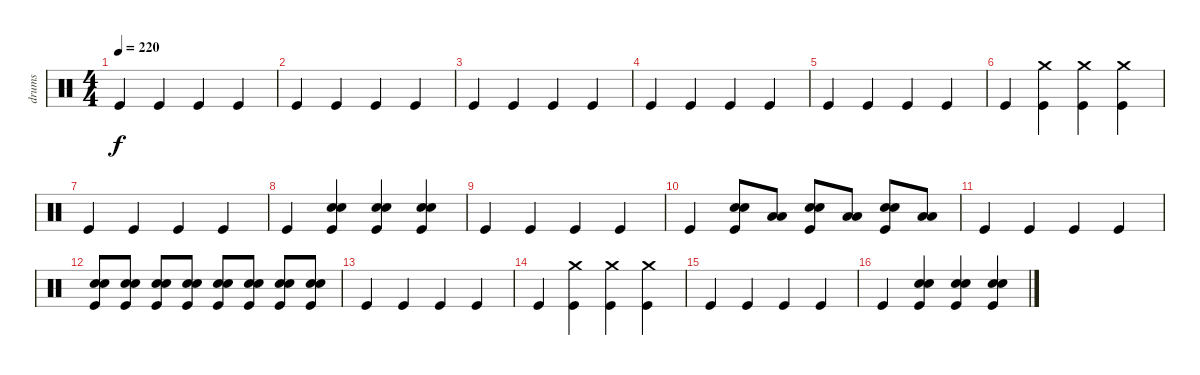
\track ("drums" "drums") {instrument percussion}
\staff {score}
\articulation defaults
\ts (4 4)
\tempo 220
\clef neutral
\ks c "Kick (hit)".4{dy f} "Kick (hit)".4 "Kick (hit)".4 "Kick (hit)".4
|
"Kick (hit)".4 "Kick (hit)".4 "Kick (hit)".4 "Kick (hit)".4 |
"Kick (hit)".4 "Kick (hit)".4 "Kick (hit)".4 "Kick (hit)".4 |
"Kick (hit)".4 "Kick (hit)".4 "Kick (hit)".4 "Kick (hit)".4 |
"Kick (hit)".4 "Kick (hit)".4 "Kick (hit)".4 "Kick (hit)".4 |
"Kick (hit)".4 ("Kick (hit)" "Crash medium (hit)").4 ("Kick (hit)" "Crash medium (hit)").4 ("Kick (hit)" "Crash medium (hit)").4 |
"Kick (hit)".4 "Kick (hit)".4 "Kick (hit)".4 "Kick (hit)".4 |
"Kick (hit)".4 ("Kick (hit)" "Electric Snare (hit)" "Snare (hit) 2").4 ("Kick (hit)" "Electric Snare (hit)" "Snare (hit) 2").4 ("Kick (hit)" "Electric Snare (hit)" "Snare (hit) 2").4 |
"Kick (hit)".4 "Kick (hit)".4 "Kick (hit)".4 "Kick (hit)".4 |
"Kick (hit)".4 ("Kick (hit)" "Electric Snare (hit)" "Snare (hit) 2").8 ("Low Tom (hit)" "Low Tom (hit)").8 ("Kick (hit)" "Electric Snare (hit)" "Snare (hit) 2").8 ("Low Tom (hit)" "Low Tom (hit)").8 ("Kick (hit)" "Electric Snare (hit)" "Snare (hit) 2").8 ("Low Tom (hit)" "Low Tom (hit)").8 |
"Kick (hit)".4 "Kick (hit)".4 "Kick (hit)".4 "Kick (hit)".4 |
("Kick (hit)" "Electric Snare (hit)" "Snare (hit) 2").8 ("Kick (hit)" "Electric Snare (hit)" "Snare (hit) 2").8 ("Kick (hit)" "Electric Snare (hit)" "Snare (hit) 2").8 ("Kick (hit)" "Electric Snare (hit)" "Snare (hit) 2").8 ("Kick (hit)" "Electric Snare (hit)" "Snare (hit) 2").8 ("Kick (hit)" "Electric Snare (hit)" "Snare (hit) 2").8 ("Kick (hit)" "Electric Snare (hit)" "Snare (hit) 2").8 ("Kick (hit)" "Electric Snare (hit)" "Snare (hit) 2").8 |
"Kick (hit)".4 "Kick (hit)".4 "Kick (hit)".4 "Kick (hit)".4 |
"Kick (hit)".4 ("Kick (hit)" "Crash medium (hit)").4 ("Kick (hit)" "Crash medium (hit)").4 ("Kick (hit)" "Crash medium (hit)").4 |
"Kick (hit)".4 "Kick (hit)".4 "Kick (hit)".4 "Kick (hit)".4 |
"Kick (hit)".4 ("Kick (hit)" "Electric Snare (hit)" "Snare (hit) 2").4 ("Kick (hit)" "Electric Snare (hit)" "Snare (hit) 2").4 ("Kick (hit)" "Electric Snare (hit)" "Snare (hit) 2").4
